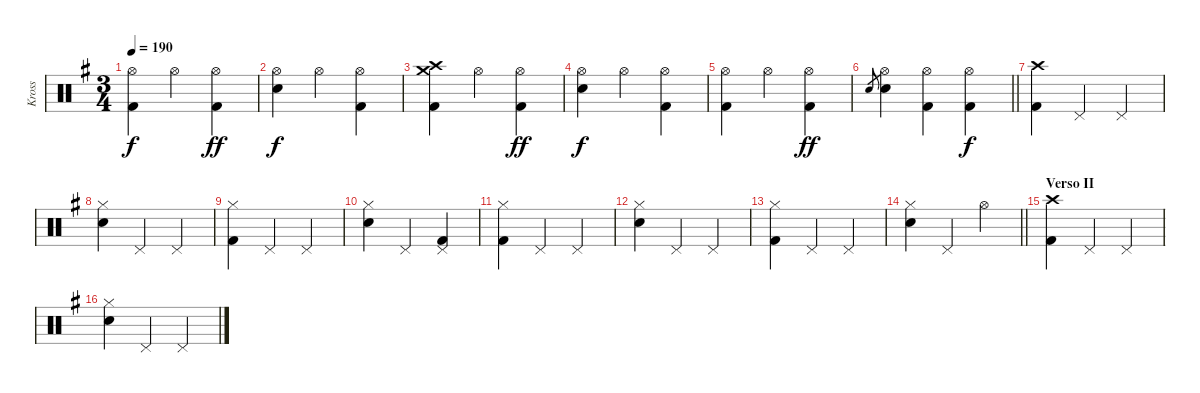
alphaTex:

\track ("Kross" "Kross") {instrument percussion}
\staff {score}
\articulation defaults
\ts (3 4)
\tempo 190
\clef neutral
\ks g
("Hi-Hat (open)" "Kick (hit) 2").4{dy f} "Hi-Hat (open)".4 ("Hi-Hat (open)" "Kick (hit) 2").4{dy ff} |
("Hi-Hat (open)" "Snare (hit) 2").4{dy f} "Hi-Hat (open)".4 ("Hi-Hat (open)" "Kick (hit) 2").4 |
("Crash high (hit)" "Crash medium (hit)" "Kick (hit) 2").4 "Hi-Hat (open)".4 ("Hi-Hat (open)" "Kick (hit) 2").4{dy ff} |
("Hi-Hat (open)" "Snare (hit) 2").4{dy f} "Hi-Hat (open)".4 ("Hi-Hat (open)" "Kick (hit) 2").4 |
("Hi-Hat (open)" "Kick (hit) 2").4 "Hi-Hat (open)".4 ("Hi-Hat (open)" "Kick (hit) 2").4{dy ff} |
\barLineRight lightlight "Electric Snare (hit)".8{gr}
("Hi-Hat (open)" "Electric Snare (hit)").4 ("Hi-Hat (open)" "Kick (hit) 2").4 ("Hi-Hat (open)" "Kick (hit) 2").4{dy f} |
("Crash high (hit)" "Kick (hit) 2").4 "Pedal Hi-Hat (hit)".4 "Pedal Hi-Hat (hit)".4 |
("Hi-Hat (closed)" "Snare (hit) 2").4 "Pedal Hi-Hat (hit)".4 "Pedal Hi-Hat (hit)".4 |
("Hi-Hat (closed)" "Kick (hit) 2").4 "Pedal Hi-Hat (hit)".4 "Pedal Hi-Hat (hit)".4 |
("Hi-Hat (closed)" "Snare (hit) 2").4 "Pedal Hi-Hat (hit)".4 ("Pedal Hi-Hat (hit)" "Kick (hit) 2").4 |
("Hi-Hat (closed)" "Kick (hit) 2").4 "Pedal Hi-Hat (hit)".4 "Pedal Hi-Hat (hit)".4 |
("Hi-Hat (closed)" "Snare (hit) 2").4 "Pedal Hi-Hat (hit)".4 "Pedal Hi-Hat (hit)".4 |
("Hi-Hat (closed)" "Kick (hit) 2").4 "Pedal Hi-Hat (hit)".4 "Pedal Hi-Hat (hit)".4 |
\barLineRight lightlight
("Hi-Hat (closed)" "Snare (hit) 2").4 "Pedal Hi-Hat (hit)".4 "Hi-Hat (open)".4 |
\section ("" "Verso II")
("Crash high (hit)" "Kick (hit) 2").4 "Pedal Hi-Hat (hit)".4 "Pedal Hi-Hat (hit)".4 |
("Hi-Hat (closed)" "Snare (hit) 2").4 "Pedal Hi-Hat (hit)".4 "Pedal Hi-Hat (hit)".4
